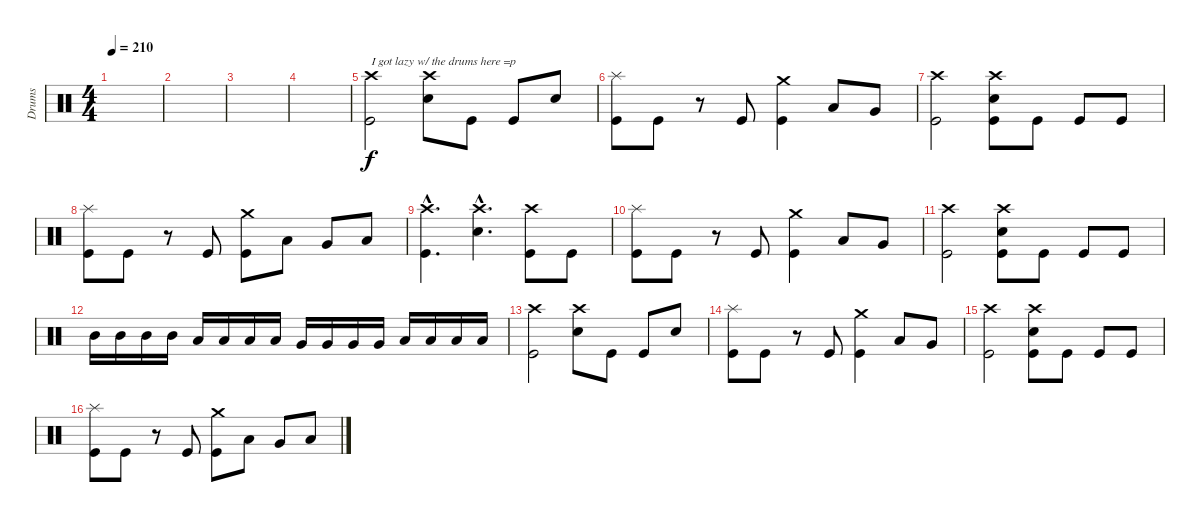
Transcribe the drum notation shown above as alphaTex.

\track ("Drums" "Drums") {instrument percussion}
\staff {score}
\articulation defaults
\ts (4 4)
\tempo 210
\clef neutral
\ks c
|
|
|
|
("Crash high (hit)" "Kick (hit)").2{txt "I got lazy w/ the drums here =p"} ("Crash high (hit)" "Snare (hit) 2").8 "Kick (hit)".8 "Kick (hit)".8 "Snare (hit) 2".8 |
("Splash (hit)" "Kick (hit)").8 "Kick (hit)".8 r.8 "Kick (hit)".8 ("Crash medium (hit)" "Kick (hit)").4 "Low Tom (hit)".8 "Very Low Tom (hit)".8 |
("Crash high (hit)" "Kick (hit)").2 ("Crash high (hit)" "Snare (hit) 2" "Kick (hit)").8 "Kick (hit)".8 "Kick (hit)".8 "Kick (hit)".8 |
("Splash (hit)" "Kick (hit)").8 "Kick (hit)".8 r.8 "Kick (hit)".8 ("Crash medium (hit)" "Kick (hit)").8 "Low Tom (hit)".8 "Very Low Tom (hit)".8 "Low Floor Tom (hit)".8 |
("Crash high (hit)"{hac} "Kick (hit)"{hac}).4{d} ("Crash high (hit)"{hac} "Snare (hit) 2"{hac}).4{d} ("Crash high (hit)" "Kick (hit)").8 "Kick (hit)".8 |
("Splash (hit)" "Kick (hit)").8 "Kick (hit)".8 r.8 "Kick (hit)".8 ("Crash medium (hit)" "Kick (hit)").4 "Low Tom (hit)".8 "Very Low Tom (hit)".8 |
("Crash high (hit)" "Kick (hit)").2 ("Crash high (hit)" "Snare (hit) 2" "Kick (hit)").8 "Kick (hit)".8 "Kick (hit)".8 "Kick (hit)".8 |
"Mid Tom (hit)".16 "Mid Tom (hit)".16 "Mid Tom (hit)".16 "Mid Tom (hit)".16 "Low Tom (hit)".16 "Low Tom (hit)".16 "Low Tom (hit)".16 "Low Tom (hit)".16 "Very Low Tom (hit)".16 "Very Low Tom (hit)".16 "Very Low Tom (hit)".16 "Very Low Tom (hit)".16 "Low Floor Tom (hit)".16 "Low Floor Tom (hit)".16 "Low Floor Tom (hit)".16 "Low Floor Tom (hit)".16 |
("Crash high (hit)" "Kick (hit)").2 ("Crash high (hit)" "Snare (hit) 2").8 "Kick (hit)".8 "Kick (hit)".8 "Snare (hit) 2".8 |
("Splash (hit)" "Kick (hit)").8 "Kick (hit)".8 r.8 "Kick (hit)".8 ("Crash medium (hit)" "Kick (hit)").4 "Low Tom (hit)".8 "Very Low Tom (hit)".8 |
("Crash high (hit)" "Kick (hit)").2 ("Crash high (hit)" "Snare (hit) 2" "Kick (hit)").8 "Kick (hit)".8 "Kick (hit)".8 "Kick (hit)".8 |
("Splash (hit)" "Kick (hit)").8 "Kick (hit)".8 r.8 "Kick (hit)".8 ("Crash medium (hit)" "Kick (hit)").8 "Low Tom (hit)".8 "Very Low Tom (hit)".8 "Low Floor Tom (hit)".8
